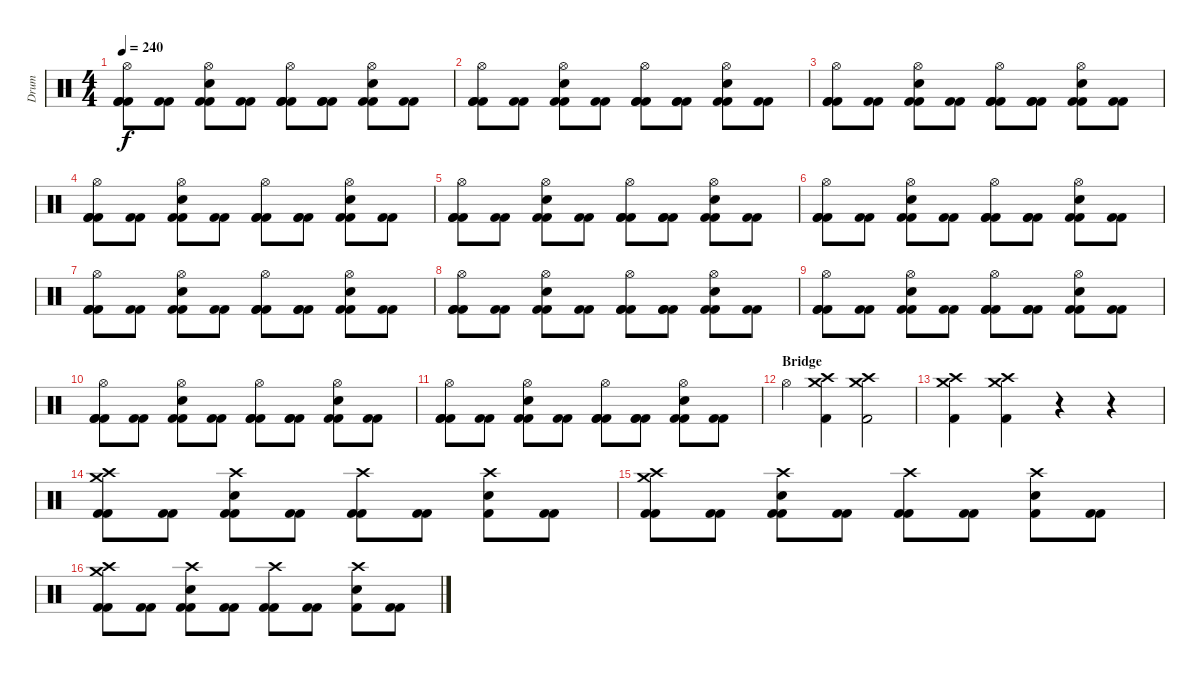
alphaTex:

\track ("Drum" "Drum") {instrument percussion}
\staff {score}
\articulation defaults
\ts (4 4)
\tempo 240
\clef neutral
\ks c
("Hi-Hat (open)" "Kick (hit) 2" "Kick (hit) 2" "Kick (hit) 2").8{dy f} ("Kick (hit) 2" "Kick (hit) 2").8 ("Hi-Hat (open)" "Electric Snare (hit)" "Kick (hit) 2" "Kick (hit) 2").8 ("Kick (hit) 2" "Kick (hit) 2").8 ("Hi-Hat (open)" "Kick (hit) 2" "Kick (hit) 2" "Kick (hit) 2").8 ("Kick (hit) 2" "Kick (hit) 2" "Kick (hit) 2").8 ("Hi-Hat (open)" "Electric Snare (hit)" "Kick (hit) 2" "Kick (hit) 2").8 ("Kick (hit) 2" "Kick (hit) 2").8 |
("Hi-Hat (open)" "Kick (hit) 2" "Kick (hit) 2" "Kick (hit) 2").8 ("Kick (hit) 2" "Kick (hit) 2").8 ("Hi-Hat (open)" "Electric Snare (hit)" "Kick (hit) 2" "Kick (hit) 2").8 ("Kick (hit) 2" "Kick (hit) 2").8 ("Hi-Hat (open)" "Kick (hit) 2" "Kick (hit) 2" "Kick (hit) 2").8 ("Kick (hit) 2" "Kick (hit) 2" "Kick (hit) 2").8 ("Hi-Hat (open)" "Electric Snare (hit)" "Kick (hit) 2" "Kick (hit) 2").8 ("Kick (hit) 2" "Kick (hit) 2").8 |
("Hi-Hat (open)" "Kick (hit) 2" "Kick (hit) 2" "Kick (hit) 2").8 ("Kick (hit) 2" "Kick (hit) 2").8 ("Hi-Hat (open)" "Electric Snare (hit)" "Kick (hit) 2" "Kick (hit) 2").8 ("Kick (hit) 2" "Kick (hit) 2").8 ("Hi-Hat (open)" "Kick (hit) 2" "Kick (hit) 2" "Kick (hit) 2").8 ("Kick (hit) 2" "Kick (hit) 2" "Kick (hit) 2").8 ("Hi-Hat (open)" "Electric Snare (hit)" "Kick (hit) 2" "Kick (hit) 2").8 ("Kick (hit) 2" "Kick (hit) 2").8 |
("Hi-Hat (open)" "Kick (hit) 2" "Kick (hit) 2" "Kick (hit) 2").8 ("Kick (hit) 2" "Kick (hit) 2").8 ("Hi-Hat (open)" "Electric Snare (hit)" "Kick (hit) 2" "Kick (hit) 2").8 ("Kick (hit) 2" "Kick (hit) 2").8 ("Hi-Hat (open)" "Kick (hit) 2" "Kick (hit) 2" "Kick (hit) 2").8 ("Kick (hit) 2" "Kick (hit) 2" "Kick (hit) 2").8 ("Hi-Hat (open)" "Electric Snare (hit)" "Kick (hit) 2" "Kick (hit) 2").8 ("Kick (hit) 2" "Kick (hit) 2").8 |
("Hi-Hat (open)" "Kick (hit) 2" "Kick (hit) 2" "Kick (hit) 2").8 ("Kick (hit) 2" "Kick (hit) 2").8 ("Hi-Hat (open)" "Electric Snare (hit)" "Kick (hit) 2" "Kick (hit) 2").8 ("Kick (hit) 2" "Kick (hit) 2").8 ("Hi-Hat (open)" "Kick (hit) 2" "Kick (hit) 2" "Kick (hit) 2").8 ("Kick (hit) 2" "Kick (hit) 2" "Kick (hit) 2").8 ("Hi-Hat (open)" "Electric Snare (hit)" "Kick (hit) 2" "Kick (hit) 2").8 ("Kick (hit) 2" "Kick (hit) 2").8 |
("Hi-Hat (open)" "Kick (hit) 2" "Kick (hit) 2" "Kick (hit) 2").8 ("Kick (hit) 2" "Kick (hit) 2").8 ("Hi-Hat (open)" "Electric Snare (hit)" "Kick (hit) 2" "Kick (hit) 2").8 ("Kick (hit) 2" "Kick (hit) 2").8 ("Hi-Hat (open)" "Kick (hit) 2" "Kick (hit) 2" "Kick (hit) 2").8 ("Kick (hit) 2" "Kick (hit) 2" "Kick (hit) 2").8 ("Hi-Hat (open)" "Electric Snare (hit)" "Kick (hit) 2" "Kick (hit) 2").8 ("Kick (hit) 2" "Kick (hit) 2").8 |
("Hi-Hat (open)" "Kick (hit) 2" "Kick (hit) 2" "Kick (hit) 2").8 ("Kick (hit) 2" "Kick (hit) 2").8 ("Hi-Hat (open)" "Electric Snare (hit)" "Kick (hit) 2" "Kick (hit) 2").8 ("Kick (hit) 2" "Kick (hit) 2").8 ("Hi-Hat (open)" "Kick (hit) 2" "Kick (hit) 2" "Kick (hit) 2").8 ("Kick (hit) 2" "Kick (hit) 2" "Kick (hit) 2").8 ("Hi-Hat (open)" "Electric Snare (hit)" "Kick (hit) 2" "Kick (hit) 2").8 ("Kick (hit) 2" "Kick (hit) 2").8 |
("Hi-Hat (open)" "Kick (hit) 2" "Kick (hit) 2" "Kick (hit) 2").8 ("Kick (hit) 2" "Kick (hit) 2").8 ("Hi-Hat (open)" "Electric Snare (hit)" "Kick (hit) 2" "Kick (hit) 2").8 ("Kick (hit) 2" "Kick (hit) 2").8 ("Hi-Hat (open)" "Kick (hit) 2" "Kick (hit) 2" "Kick (hit) 2").8 ("Kick (hit) 2" "Kick (hit) 2" "Kick (hit) 2").8 ("Hi-Hat (open)" "Electric Snare (hit)" "Kick (hit) 2" "Kick (hit) 2").8 ("Kick (hit) 2" "Kick (hit) 2").8 |
("Hi-Hat (open)" "Kick (hit) 2" "Kick (hit) 2" "Kick (hit) 2").8 ("Kick (hit) 2" "Kick (hit) 2").8 ("Hi-Hat (open)" "Electric Snare (hit)" "Kick (hit) 2" "Kick (hit) 2").8 ("Kick (hit) 2" "Kick (hit) 2").8 ("Hi-Hat (open)" "Kick (hit) 2" "Kick (hit) 2" "Kick (hit) 2").8 ("Kick (hit) 2" "Kick (hit) 2" "Kick (hit) 2").8 ("Hi-Hat (open)" "Electric Snare (hit)" "Kick (hit) 2" "Kick (hit) 2").8 ("Kick (hit) 2" "Kick (hit) 2").8 |
("Hi-Hat (open)" "Kick (hit) 2" "Kick (hit) 2" "Kick (hit) 2").8 ("Kick (hit) 2" "Kick (hit) 2").8 ("Hi-Hat (open)" "Electric Snare (hit)" "Kick (hit) 2" "Kick (hit) 2").8 ("Kick (hit) 2" "Kick (hit) 2").8 ("Hi-Hat (open)" "Kick (hit) 2" "Kick (hit) 2" "Kick (hit) 2").8 ("Kick (hit) 2" "Kick (hit) 2" "Kick (hit) 2").8 ("Hi-Hat (open)" "Electric Snare (hit)" "Kick (hit) 2" "Kick (hit) 2").8 ("Kick (hit) 2" "Kick (hit) 2").8 |
("Hi-Hat (open)" "Kick (hit) 2" "Kick (hit) 2" "Kick (hit) 2").8 ("Kick (hit) 2" "Kick (hit) 2").8 ("Hi-Hat (open)" "Electric Snare (hit)" "Kick (hit) 2" "Kick (hit) 2").8 ("Kick (hit) 2" "Kick (hit) 2").8 ("Hi-Hat (open)" "Kick (hit) 2" "Kick (hit) 2" "Kick (hit) 2").8 ("Kick (hit) 2" "Kick (hit) 2" "Kick (hit) 2").8 ("Hi-Hat (open)" "Electric Snare (hit)" "Kick (hit) 2" "Kick (hit) 2").8 ("Kick (hit) 2" "Kick (hit) 2").8 |
\section ("" "Bridge")
"Hi-Hat (open)".4 ("Crash high (hit)" "Kick (hit) 2" "Crash medium (hit)").4 ("Crash high (hit)" "Kick (hit) 2" "Crash medium (hit)").2 |
("Crash high (hit)" "Kick (hit) 2" "Crash medium (hit)").4 ("Crash high (hit)" "Kick (hit) 2" "Crash medium (hit)").4 r.4 r.4 |
("Crash high (hit)" "Kick (hit) 2" "Crash medium (hit)" "Kick (hit) 2").8 ("Kick (hit) 2" "Kick (hit) 2").8 ("Crash high (hit)" "Kick (hit) 2" "Electric Snare (hit)" "Kick (hit) 2").8 ("Kick (hit) 2" "Kick (hit) 2").8 ("Crash high (hit)" "Kick (hit) 2" "Kick (hit) 2").8 ("Kick (hit) 2" "Kick (hit) 2").8 ("Crash high (hit)" "Kick (hit) 2" "Electric Snare (hit)").8 ("Kick (hit) 2" "Kick (hit) 2").8 |
("Crash high (hit)" "Kick (hit) 2" "Crash medium (hit)" "Kick (hit) 2").8 ("Kick (hit) 2" "Kick (hit) 2").8 ("Crash high (hit)" "Kick (hit) 2" "Electric Snare (hit)" "Kick (hit) 2").8 ("Kick (hit) 2" "Kick (hit) 2").8 ("Crash high (hit)" "Kick (hit) 2" "Kick (hit) 2").8 ("Kick (hit) 2" "Kick (hit) 2").8 ("Crash high (hit)" "Kick (hit) 2" "Electric Snare (hit)").8 ("Kick (hit) 2" "Kick (hit) 2").8 |
("Crash high (hit)" "Kick (hit) 2" "Crash medium (hit)" "Kick (hit) 2").8 ("Kick (hit) 2" "Kick (hit) 2").8 ("Crash high (hit)" "Kick (hit) 2" "Electric Snare (hit)" "Kick (hit) 2").8 ("Kick (hit) 2" "Kick (hit) 2").8 ("Crash high (hit)" "Kick (hit) 2" "Kick (hit) 2").8 ("Kick (hit) 2" "Kick (hit) 2").8 ("Crash high (hit)" "Kick (hit) 2" "Electric Snare (hit)").8 ("Kick (hit) 2" "Kick (hit) 2").8
